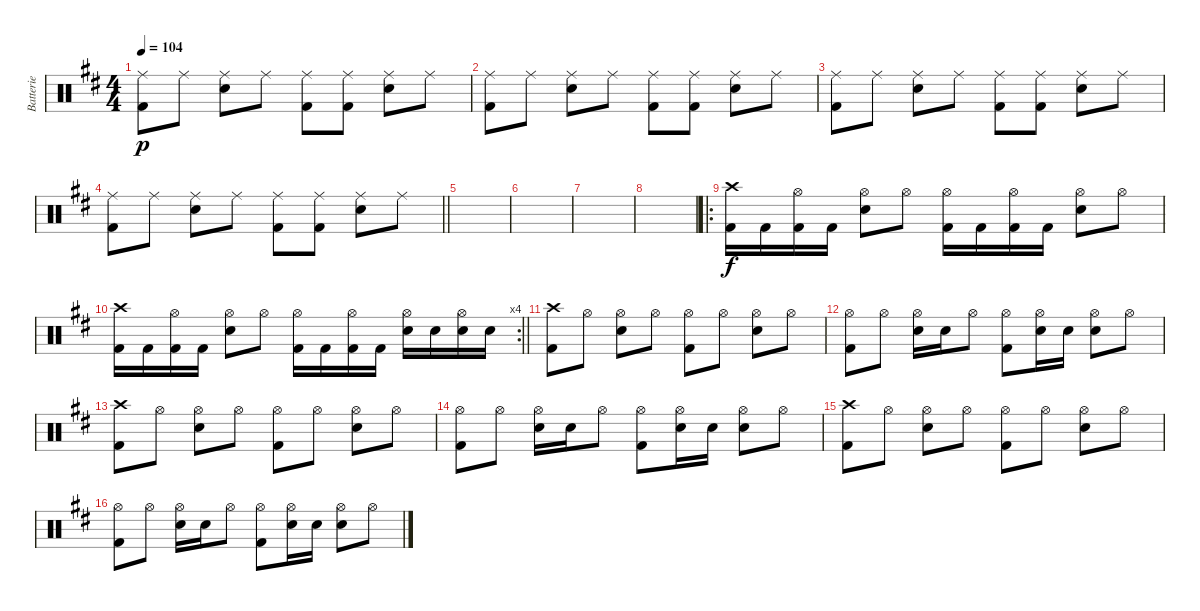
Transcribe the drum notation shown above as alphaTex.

\track ("Batterie" "Batterie") {instrument percussion}
\staff {score}
\articulation defaults
\ts (4 4)
\tempo 104
\clef neutral
\ks d
("Ride (middle)" "Kick (hit) 2").8{dy p} "Ride (middle)".8 ("Ride (middle)" "Snare (hit) 2").8 "Ride (middle)".8 ("Ride (middle)" "Kick (hit) 2").8 ("Ride (middle)" "Kick (hit) 2").8 ("Ride (middle)" "Snare (hit) 2").8 "Ride (middle)".8 |
("Ride (middle)" "Kick (hit) 2").8 "Ride (middle)".8 ("Ride (middle)" "Snare (hit) 2").8 "Ride (middle)".8 ("Ride (middle)" "Kick (hit) 2").8 ("Ride (middle)" "Kick (hit) 2").8 ("Ride (middle)" "Snare (hit) 2").8 "Ride (middle)".8 |
("Ride (middle)" "Kick (hit) 2").8 "Ride (middle)".8 ("Ride (middle)" "Snare (hit) 2").8 "Ride (middle)".8 ("Ride (middle)" "Kick (hit) 2").8 ("Ride (middle)" "Kick (hit) 2").8 ("Ride (middle)" "Snare (hit) 2").8 "Ride (middle)".8 |
\barLineRight lightlight
("Ride (middle)" "Kick (hit) 2").8 "Ride (middle)".8 ("Ride (middle)" "Snare (hit) 2").8 "Ride (middle)".8 ("Ride (middle)" "Kick (hit) 2").8 ("Ride (middle)" "Kick (hit) 2").8 ("Ride (middle)" "Snare (hit) 2").8 "Ride (middle)".8 |
|
|
|
|
\ro
("Crash high (hit)" "Kick (hit) 2").16{dy f} "Kick (hit) 2".16 ("Hi-Hat (open)" "Kick (hit) 2").16 "Kick (hit) 2".16 ("Hi-Hat (open)" "Snare (hit) 2").8 "Hi-Hat (open)".8 ("Hi-Hat (open)" "Kick (hit) 2").16 "Kick (hit) 2".16 ("Hi-Hat (open)" "Kick (hit) 2").16 "Kick (hit) 2".16 ("Hi-Hat (open)" "Snare (hit) 2").8 "Hi-Hat (open)".8 |
\rc 4
\barLineRight lightlight
("Crash high (hit)" "Kick (hit) 2").16 "Kick (hit) 2".16 ("Hi-Hat (open)" "Kick (hit) 2").16 "Kick (hit) 2".16 ("Hi-Hat (open)" "Snare (hit) 2").8 "Hi-Hat (open)".8 ("Hi-Hat (open)" "Kick (hit) 2").16 "Kick (hit) 2".16 ("Hi-Hat (open)" "Kick (hit) 2").16 "Kick (hit) 2".16 ("Hi-Hat (open)" "Snare (hit) 2").16 "Snare (hit) 2".16 ("Hi-Hat (open)" "Snare (hit) 2").16 "Snare (hit) 2".16 |
("Crash high (hit)" "Kick (hit) 2").8 "Hi-Hat (open)".8 ("Hi-Hat (open)" "Snare (hit) 2").8 "Hi-Hat (open)".8 ("Hi-Hat (open)" "Kick (hit) 2").8 "Hi-Hat (open)".8 ("Hi-Hat (open)" "Snare (hit) 2").8 "Hi-Hat (open)".8 |
("Hi-Hat (open)" "Kick (hit) 2").8 "Hi-Hat (open)".8 ("Hi-Hat (open)" "Snare (hit) 2").16 "Snare (hit) 2".16 "Hi-Hat (open)".8 ("Hi-Hat (open)" "Kick (hit) 2").8 ("Hi-Hat (open)" "Snare (hit) 2").16 "Snare (hit) 2".16 ("Hi-Hat (open)" "Snare (hit) 2").8 "Hi-Hat (open)".8 |
("Crash high (hit)" "Kick (hit) 2").8 "Hi-Hat (open)".8 ("Hi-Hat (open)" "Snare (hit) 2").8 "Hi-Hat (open)".8 ("Hi-Hat (open)" "Kick (hit) 2").8 "Hi-Hat (open)".8 ("Hi-Hat (open)" "Snare (hit) 2").8 "Hi-Hat (open)".8 |
("Hi-Hat (open)" "Kick (hit) 2").8 "Hi-Hat (open)".8 ("Hi-Hat (open)" "Snare (hit) 2").16 "Snare (hit) 2".16 "Hi-Hat (open)".8 ("Hi-Hat (open)" "Kick (hit) 2").8 ("Hi-Hat (open)" "Snare (hit) 2").16 "Snare (hit) 2".16 ("Hi-Hat (open)" "Snare (hit) 2").8 "Hi-Hat (open)".8 |
("Crash high (hit)" "Kick (hit) 2").8 "Hi-Hat (open)".8 ("Hi-Hat (open)" "Snare (hit) 2").8 "Hi-Hat (open)".8 ("Hi-Hat (open)" "Kick (hit) 2").8 "Hi-Hat (open)".8 ("Hi-Hat (open)" "Snare (hit) 2").8 "Hi-Hat (open)".8 |
("Hi-Hat (open)" "Kick (hit) 2").8 "Hi-Hat (open)".8 ("Hi-Hat (open)" "Snare (hit) 2").16 "Snare (hit) 2".16 "Hi-Hat (open)".8 ("Hi-Hat (open)" "Kick (hit) 2").8 ("Hi-Hat (open)" "Snare (hit) 2").16 "Snare (hit) 2".16 ("Hi-Hat (open)" "Snare (hit) 2").8 "Hi-Hat (open)".8
